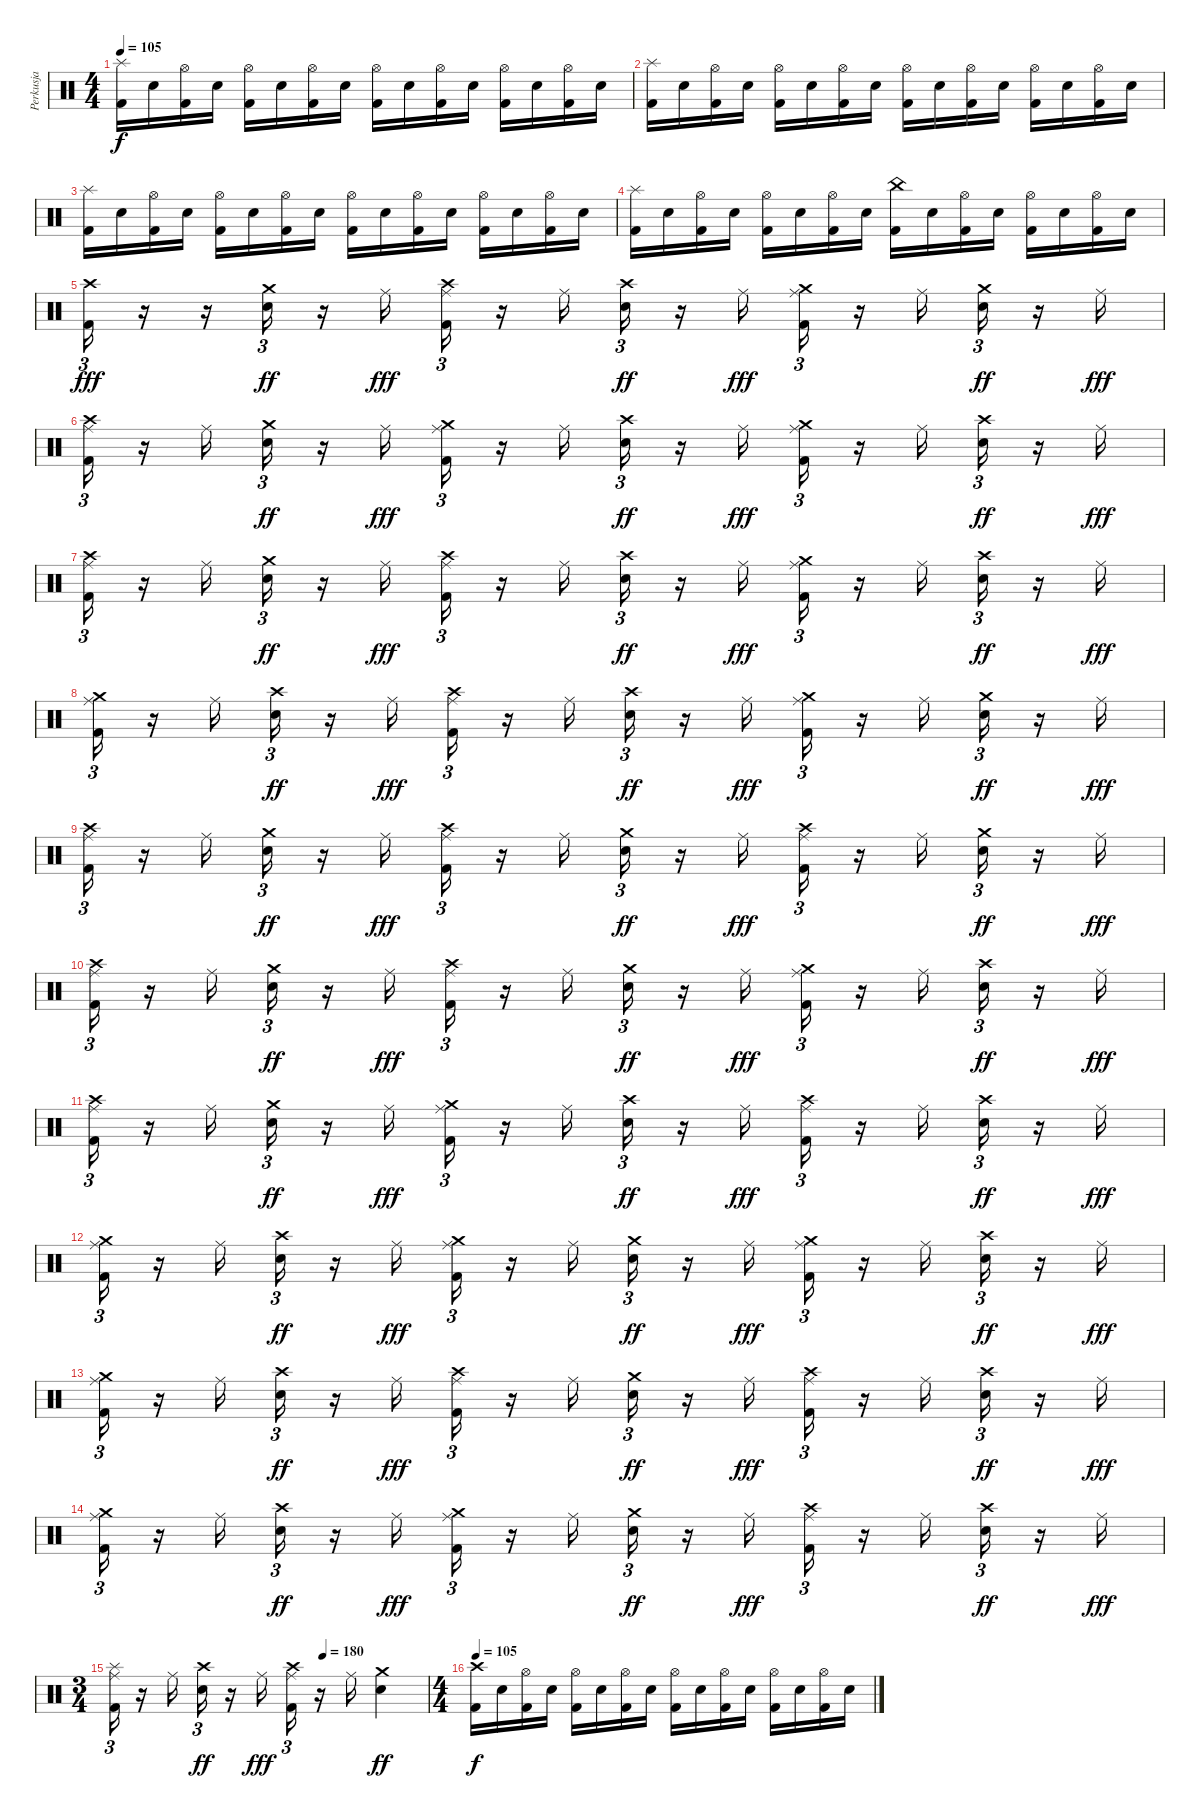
\track ("Perkusja" "Perkusja") {instrument percussion}
\staff {score}
\articulation defaults
\ts (4 4)
\tempo 105
\clef neutral
\ks c
("Splash (hit)" "Kick (hit) 2").16{dy f} "Snare (hit) 2".16 ("Hi-Hat (open)" "Kick (hit) 2").16 "Snare (hit) 2".16 ("Hi-Hat (open)" "Kick (hit) 2").16 "Snare (hit) 2".16 ("Hi-Hat (open)" "Kick (hit) 2").16 "Snare (hit) 2".16 ("Hi-Hat (open)" "Kick (hit) 2").16 "Snare (hit) 2".16 ("Hi-Hat (open)" "Kick (hit) 2").16 "Snare (hit) 2".16 ("Hi-Hat (open)" "Kick (hit) 2").16 "Snare (hit) 2".16 ("Hi-Hat (open)" "Kick (hit) 2").16 "Snare (hit) 2".16 |
("Splash (hit)" "Kick (hit) 2").16 "Snare (hit) 2".16 ("Hi-Hat (open)" "Kick (hit) 2").16 "Snare (hit) 2".16 ("Hi-Hat (open)" "Kick (hit) 2").16 "Snare (hit) 2".16 ("Hi-Hat (open)" "Kick (hit) 2").16 "Snare (hit) 2".16 ("Hi-Hat (open)" "Kick (hit) 2").16 "Snare (hit) 2".16 ("Hi-Hat (open)" "Kick (hit) 2").16 "Snare (hit) 2".16 ("Hi-Hat (open)" "Kick (hit) 2").16 "Snare (hit) 2".16 ("Hi-Hat (open)" "Kick (hit) 2").16 "Snare (hit) 2".16 |
("Splash (hit)" "Kick (hit) 2").16 "Snare (hit) 2".16 ("Hi-Hat (open)" "Kick (hit) 2").16 "Snare (hit) 2".16 ("Hi-Hat (open)" "Kick (hit) 2").16 "Snare (hit) 2".16 ("Hi-Hat (open)" "Kick (hit) 2").16 "Snare (hit) 2".16 ("Hi-Hat (open)" "Kick (hit) 2").16 "Snare (hit) 2".16 ("Hi-Hat (open)" "Kick (hit) 2").16 "Snare (hit) 2".16 ("Hi-Hat (open)" "Kick (hit) 2").16 "Snare (hit) 2".16 ("Hi-Hat (open)" "Kick (hit) 2").16 "Snare (hit) 2".16 |
("Splash (hit)" "Kick (hit) 2").16 "Snare (hit) 2".16 ("Hi-Hat (open)" "Kick (hit) 2").16 "Snare (hit) 2".16 ("Hi-Hat (open)" "Kick (hit) 2").16 "Snare (hit) 2".16 ("Hi-Hat (open)" "Kick (hit) 2").16 "Snare (hit) 2".16 ("China (hit)" "Kick (hit) 2").16 "Snare (hit) 2".16 ("Hi-Hat (open)" "Kick (hit) 2").16 "Snare (hit) 2".16 ("Hi-Hat (open)" "Kick (hit) 2").16 "Snare (hit) 2".16 ("Hi-Hat (open)" "Kick (hit) 2").16 "Snare (hit) 2".16 |
("Crash high (hit)" "Kick (hit) 2").16{tu (3 2) dy fff} r.16 r.16 ("Crash medium (hit)" "Snare (hit) 2").16{tu (3 2) dy ff} r.16 "Ride (middle)".16{dy fff} ("Ride (middle)" "Crash high (hit)" "Kick (hit) 2").16{tu (3 2)} r.16 "Ride (middle)".16 ("Crash high (hit)" "Snare (hit) 2").16{tu (3 2) dy ff} r.16 "Ride (middle)".16{dy fff} ("Ride (middle)" "Crash medium (hit)" "Kick (hit) 2").16{tu (3 2)} r.16 "Ride (middle)".16 ("Crash medium (hit)" "Snare (hit) 2").16{tu (3 2) dy ff} r.16 "Ride (middle)".16{dy fff} |
("Ride (middle)" "Crash high (hit)" "Kick (hit) 2").16{tu (3 2)} r.16 "Ride (middle)".16 ("Crash medium (hit)" "Snare (hit) 2").16{tu (3 2) dy ff} r.16 "Ride (middle)".16{dy fff} ("Ride (middle)" "Crash medium (hit)" "Kick (hit) 2").16{tu (3 2)} r.16 "Ride (middle)".16 ("Crash high (hit)" "Snare (hit) 2").16{tu (3 2) dy ff} r.16 "Ride (middle)".16{dy fff} ("Ride (middle)" "Crash medium (hit)" "Kick (hit) 2").16{tu (3 2)} r.16 "Ride (middle)".16 ("Crash high (hit)" "Snare (hit) 2").16{tu (3 2) dy ff} r.16 "Ride (middle)".16{dy fff} |
("Ride (middle)" "Crash high (hit)" "Kick (hit) 2").16{tu (3 2)} r.16 "Ride (middle)".16 ("Crash medium (hit)" "Snare (hit) 2").16{tu (3 2) dy ff} r.16 "Ride (middle)".16{dy fff} ("Ride (middle)" "Crash high (hit)" "Kick (hit) 2").16{tu (3 2)} r.16 "Ride (middle)".16 ("Crash high (hit)" "Snare (hit) 2").16{tu (3 2) dy ff} r.16 "Ride (middle)".16{dy fff} ("Ride (middle)" "Crash medium (hit)" "Kick (hit) 2").16{tu (3 2)} r.16 "Ride (middle)".16 ("Crash high (hit)" "Snare (hit) 2").16{tu (3 2) dy ff} r.16 "Ride (middle)".16{dy fff} |
("Ride (middle)" "Crash medium (hit)" "Kick (hit) 2").16{tu (3 2)} r.16 "Ride (middle)".16 ("Crash high (hit)" "Snare (hit) 2").16{tu (3 2) dy ff} r.16 "Ride (middle)".16{dy fff} ("Ride (middle)" "Crash high (hit)" "Kick (hit) 2").16{tu (3 2)} r.16 "Ride (middle)".16 ("Crash high (hit)" "Snare (hit) 2").16{tu (3 2) dy ff} r.16 "Ride (middle)".16{dy fff} ("Ride (middle)" "Crash medium (hit)" "Kick (hit) 2").16{tu (3 2)} r.16 "Ride (middle)".16 ("Crash medium (hit)" "Snare (hit) 2").16{tu (3 2) dy ff} r.16 "Ride (middle)".16{dy fff} |
("Ride (middle)" "Crash high (hit)" "Kick (hit) 2").16{tu (3 2)} r.16 "Ride (middle)".16 ("Crash medium (hit)" "Snare (hit) 2").16{tu (3 2) dy ff} r.16 "Ride (middle)".16{dy fff} ("Ride (middle)" "Crash high (hit)" "Kick (hit) 2").16{tu (3 2)} r.16 "Ride (middle)".16 ("Crash medium (hit)" "Snare (hit) 2").16{tu (3 2) dy ff} r.16 "Ride (middle)".16{dy fff} ("Ride (middle)" "Crash high (hit)" "Kick (hit) 2").16{tu (3 2)} r.16 "Ride (middle)".16 ("Crash medium (hit)" "Snare (hit) 2").16{tu (3 2) dy ff} r.16 "Ride (middle)".16{dy fff} |
("Ride (middle)" "Crash high (hit)" "Kick (hit) 2").16{tu (3 2)} r.16 "Ride (middle)".16 ("Crash medium (hit)" "Snare (hit) 2").16{tu (3 2) dy ff} r.16 "Ride (middle)".16{dy fff} ("Ride (middle)" "Crash high (hit)" "Kick (hit) 2").16{tu (3 2)} r.16 "Ride (middle)".16 ("Crash medium (hit)" "Snare (hit) 2").16{tu (3 2) dy ff} r.16 "Ride (middle)".16{dy fff} ("Ride (middle)" "Crash medium (hit)" "Kick (hit) 2").16{tu (3 2)} r.16 "Ride (middle)".16 ("Crash high (hit)" "Snare (hit) 2").16{tu (3 2) dy ff} r.16 "Ride (middle)".16{dy fff} |
("Ride (middle)" "Crash high (hit)" "Kick (hit) 2").16{tu (3 2)} r.16 "Ride (middle)".16 ("Crash medium (hit)" "Snare (hit) 2").16{tu (3 2) dy ff} r.16 "Ride (middle)".16{dy fff} ("Ride (middle)" "Crash medium (hit)" "Kick (hit) 2").16{tu (3 2)} r.16 "Ride (middle)".16 ("Crash high (hit)" "Snare (hit) 2").16{tu (3 2) dy ff} r.16 "Ride (middle)".16{dy fff} ("Ride (middle)" "Crash high (hit)" "Kick (hit) 2").16{tu (3 2)} r.16 "Ride (middle)".16 ("Crash high (hit)" "Snare (hit) 2").16{tu (3 2) dy ff} r.16 "Ride (middle)".16{dy fff} |
("Ride (middle)" "Crash medium (hit)" "Kick (hit) 2").16{tu (3 2)} r.16 "Ride (middle)".16 ("Crash high (hit)" "Snare (hit) 2").16{tu (3 2) dy ff} r.16 "Ride (middle)".16{dy fff} ("Ride (middle)" "Crash medium (hit)" "Kick (hit) 2").16{tu (3 2)} r.16 "Ride (middle)".16 ("Crash medium (hit)" "Snare (hit) 2").16{tu (3 2) dy ff} r.16 "Ride (middle)".16{dy fff} ("Ride (middle)" "Crash medium (hit)" "Kick (hit) 2").16{tu (3 2)} r.16 "Ride (middle)".16 ("Crash high (hit)" "Snare (hit) 2").16{tu (3 2) dy ff} r.16 "Ride (middle)".16{dy fff} |
("Ride (middle)" "Crash medium (hit)" "Kick (hit) 2").16{tu (3 2)} r.16 "Ride (middle)".16 ("Crash high (hit)" "Snare (hit) 2").16{tu (3 2) dy ff} r.16 "Ride (middle)".16{dy fff} ("Ride (middle)" "Crash high (hit)" "Kick (hit) 2").16{tu (3 2)} r.16 "Ride (middle)".16 ("Crash medium (hit)" "Snare (hit) 2").16{tu (3 2) dy ff} r.16 "Ride (middle)".16{dy fff} ("Ride (middle)" "Crash high (hit)" "Kick (hit) 2").16{tu (3 2)} r.16 "Ride (middle)".16 ("Crash high (hit)" "Snare (hit) 2").16{tu (3 2) dy ff} r.16 "Ride (middle)".16{dy fff} |
("Ride (middle)" "Crash medium (hit)" "Kick (hit) 2").16{tu (3 2)} r.16 "Ride (middle)".16 ("Crash high (hit)" "Snare (hit) 2").16{tu (3 2) dy ff} r.16 "Ride (middle)".16{dy fff} ("Ride (middle)" "Crash medium (hit)" "Kick (hit) 2").16{tu (3 2)} r.16 "Ride (middle)".16 ("Crash medium (hit)" "Snare (hit) 2").16{tu (3 2) dy ff} r.16 "Ride (middle)".16{dy fff} ("Ride (middle)" "Crash high (hit)" "Kick (hit) 2").16{tu (3 2)} r.16 "Ride (middle)".16 ("Crash high (hit)" "Snare (hit) 2").16{tu (3 2) dy ff} r.16 "Ride (middle)".16{dy fff} |
\ts (3 4)
\tempo (180 0.6666666666666666)
("Ride (middle)" "Splash (hit)" "Kick (hit) 2").16{tu (3 2)} r.16 "Ride (middle)".16 ("Crash high (hit)" "Snare (hit) 2").16{tu (3 2) dy ff} r.16 "Ride (middle)".16{dy fff} ("Ride (middle)" "Crash high (hit)" "Kick (hit) 2").16{tu (3 2)} r.16 "Ride (middle)".16 ("Crash medium (hit)" "Snare (hit) 2").4{dy ff} |
\ts (4 4)
\tempo 105
("Crash high (hit)" "Kick (hit) 2").16{dy f} "Snare (hit) 2".16 ("Hi-Hat (open)" "Kick (hit) 2").16 "Snare (hit) 2".16 ("Hi-Hat (open)" "Kick (hit) 2").16 "Snare (hit) 2".16 ("Hi-Hat (open)" "Kick (hit) 2").16 "Snare (hit) 2".16 ("Hi-Hat (open)" "Kick (hit) 2").16 "Snare (hit) 2".16 ("Hi-Hat (open)" "Kick (hit) 2").16 "Snare (hit) 2".16 ("Hi-Hat (open)" "Kick (hit) 2").16 "Snare (hit) 2".16 ("Hi-Hat (open)" "Kick (hit) 2").16 "Snare (hit) 2".16
